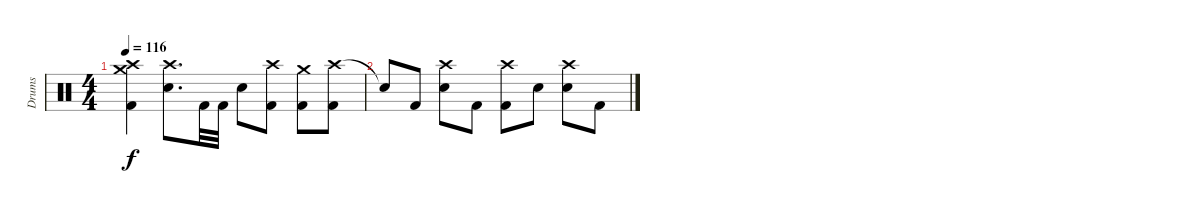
\track ("Drums" "Drums") {instrument percussion}
\staff {score}
\articulation defaults
\ts (4 4)
\tempo 116
\clef neutral
\ks c
("Crash medium (hit)" "Crash high (hit)" "Kick (hit) 2").4{dy f} ("Crash high (hit)" "Electric Snare (hit)").8{d} "Kick (hit) 2".32 "Kick (hit) 2".32 "Electric Snare (hit)".8 ("Crash high (hit)" "Kick (hit) 2").8 ("Crash medium (hit)" "Kick (hit) 2").8 ("Crash high (hit)" "Kick (hit) 2").8 |
"Snare (hit)"{t}.8 "Kick (hit) 2".8 ("Crash high (hit)" "Electric Snare (hit)").8 "Kick (hit) 2".8 ("Crash high (hit)" "Kick (hit) 2").8 "Electric Snare (hit)".8 ("Crash high (hit)" "Electric Snare (hit)").8 "Kick (hit) 2".8
